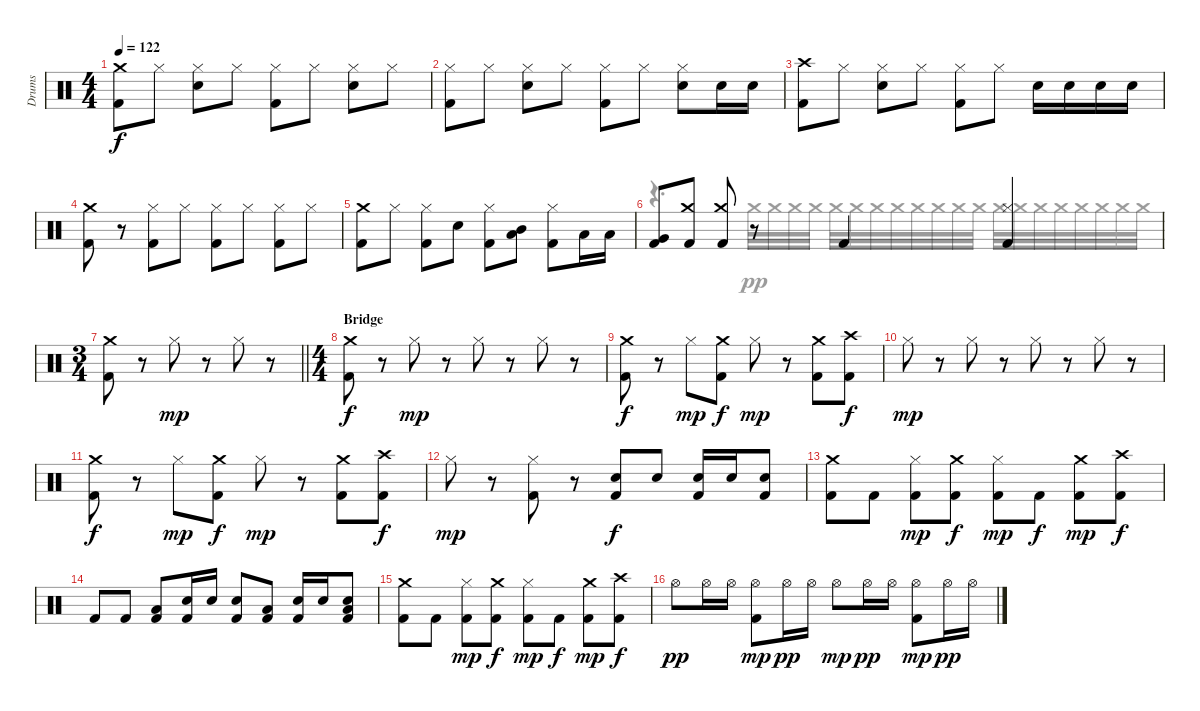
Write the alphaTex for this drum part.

\track ("Drums" "Drums") {instrument percussion}
\staff {score}
\articulation defaults
\voice
\ts (4 4)
\tempo 122
\clef neutral
\ks c
("Crash medium (hit)" "Kick (hit) 2").8{dy f} "Hi-Hat (closed)".8 ("Hi-Hat (closed)" "Electric Snare (hit)").8 "Hi-Hat (closed)".8 ("Hi-Hat (closed)" "Kick (hit) 2").8 "Hi-Hat (closed)".8 ("Hi-Hat (closed)" "Electric Snare (hit)").8 "Hi-Hat (closed)".8 |
("Hi-Hat (closed)" "Kick (hit) 2").8 "Hi-Hat (closed)".8 ("Hi-Hat (closed)" "Electric Snare (hit)").8 "Hi-Hat (closed)".8 ("Hi-Hat (closed)" "Kick (hit) 2").8 "Hi-Hat (closed)".8 ("Hi-Hat (closed)" "Electric Snare (hit)").8 "Electric Snare (hit)".16 "Electric Snare (hit)".16 |
("Crash high (hit)" "Kick (hit) 2").8 "Hi-Hat (closed)".8 ("Hi-Hat (closed)" "Electric Snare (hit)").8 "Hi-Hat (closed)".8 ("Hi-Hat (closed)" "Kick (hit) 2").8 "Hi-Hat (closed)".8 "Electric Snare (hit)".16 "Electric Snare (hit)".16 "Electric Snare (hit)".16 "Electric Snare (hit)".16 |
("Crash medium (hit)" "Kick (hit) 2").8 r.8 ("Hi-Hat (closed)" "Kick (hit) 2").8 "Hi-Hat (closed)".8 ("Hi-Hat (closed)" "Kick (hit) 2").8 "Hi-Hat (closed)".8 ("Hi-Hat (closed)" "Kick (hit) 2").8 "Hi-Hat (closed)".8 |
("Crash medium (hit)" "Kick (hit) 2").8 "Hi-Hat (closed)".8 ("Hi-Hat (closed)" "Kick (hit) 2").8 "Electric Snare (hit)".8 ("Hi-Hat (closed)" "Kick (hit) 2").8 ("Mid Tom (hit)" "Low Tom (hit)").8 ("Hi-Hat (closed)" "Kick (hit) 2").8 "Low Tom (hit)".16 "Low Tom (hit)".16 |
("Very Low Tom (hit)" "Kick (hit) 2").8 ("Crash medium (hit)" "Kick (hit) 2").8 ("Crash medium (hit)" "Kick (hit) 2").8 r.8 "Kick (hit) 2".4 ("Hi-Hat (closed)" "Kick (hit) 2").4 |
\ts (3 4)
\barLineRight lightlight
("Crash medium (hit)" "Kick (hit) 2").8 r.8 "Hi-Hat (closed)".8{dy mp} r.8 "Hi-Hat (closed)".8 r.8 |
\ts (4 4)
\section ("" "Bridge")
("Crash medium (hit)" "Kick (hit) 2").8{dy f} r.8 "Hi-Hat (closed)".8{dy mp} r.8 "Hi-Hat (closed)".8 r.8 "Hi-Hat (closed)".8 r.8 |
("Crash medium (hit)" "Kick (hit) 2").8{dy f} r.8 "Hi-Hat (closed)".8{dy mp} ("Crash medium (hit)" "Kick (hit) 2").8{dy f} "Hi-Hat (closed)".8{dy mp} r.8 ("Crash medium (hit)" "Kick (hit) 2").8 ("Crash high (hit)" "Kick (hit) 2").8{dy f} |
"Hi-Hat (closed)".8{dy mp} r.8 "Hi-Hat (closed)".8 r.8 "Hi-Hat (closed)".8 r.8 "Hi-Hat (closed)".8 r.8 |
("Crash medium (hit)" "Kick (hit) 2").8{dy f} r.8 "Hi-Hat (closed)".8{dy mp} ("Crash medium (hit)" "Kick (hit) 2").8{dy f} "Hi-Hat (closed)".8{dy mp} r.8 ("Crash medium (hit)" "Kick (hit) 2").8 ("Crash high (hit)" "Kick (hit) 2").8{dy f} |
"Hi-Hat (closed)".8{dy mp} r.8 ("Hi-Hat (closed)" "Kick (hit) 2").8 r.8 ("Electric Snare (hit)" "Kick (hit) 2").8{dy f} "Electric Snare (hit)".8 ("Electric Snare (hit)" "Kick (hit) 2").16 "Electric Snare (hit)".16 ("Electric Snare (hit)" "Kick (hit) 2").8 |
("Crash medium (hit)" "Kick (hit) 2").8 "Kick (hit) 2".8 ("Hi-Hat (closed)" "Kick (hit) 2").8{dy mp} ("Crash medium (hit)" "Kick (hit) 2").8{dy f} ("Hi-Hat (closed)" "Kick (hit) 2").8{dy mp} "Kick (hit) 2".8{dy f} ("Crash medium (hit)" "Kick (hit) 2").8{dy mp} ("Crash high (hit)" "Kick (hit) 2").8{dy f} |
"Kick (hit) 2".8 "Kick (hit) 2".8 ("Low Tom (hit)" "Kick (hit) 2").8 ("Electric Snare (hit)" "Kick (hit) 2").16 "Electric Snare (hit)".16 ("Electric Snare (hit)" "Kick (hit) 2").8 ("Low Tom (hit)" "Kick (hit) 2").8 ("Electric Snare (hit)" "Kick (hit) 2").16 "Electric Snare (hit)".16 ("Electric Snare (hit)" "Low Tom (hit)" "Kick (hit) 2").8 |
("Crash medium (hit)" "Kick (hit) 2").8 "Kick (hit) 2".8 ("Hi-Hat (closed)" "Kick (hit) 2").8{dy mp} ("Crash medium (hit)" "Kick (hit) 2").8{dy f} ("Hi-Hat (closed)" "Kick (hit) 2").8{dy mp} "Kick (hit) 2".8{dy f} ("Crash medium (hit)" "Kick (hit) 2").8{dy mp} ("Crash high (hit)" "Kick (hit) 2").8{dy f} |
"Hi-Hat (open)".8{dy pp} "Hi-Hat (open)".16 "Hi-Hat (open)".16 ("Hi-Hat (open)" "Kick (hit) 2").8{dy mp} "Hi-Hat (open)".16{dy pp} "Hi-Hat (open)".16 "Hi-Hat (open)".8{dy mp} "Hi-Hat (open)".16{dy pp} "Hi-Hat (open)".16 ("Hi-Hat (open)" "Kick (hit) 2").8{dy mp} "Hi-Hat (open)".16{dy pp} "Hi-Hat (open)".16
\voice
\clef neutral
\ottava regular
\simile none
\ks c
|
|
|
|
|
r.4{d} "Crash medium (hit)".32 "Crash medium (hit)".32 "Crash medium (hit)".32 "Crash medium (hit)".32 "Crash medium (hit)".32 "Crash medium (hit)".32 "Crash medium (hit)".32 "Crash medium (hit)".32 "Crash medium (hit)".32 "Crash medium (hit)".32 "Crash medium (hit)".32 "Crash medium (hit)".32 "Crash medium (hit)".32 "Crash medium (hit)".32 "Crash medium (hit)".32 "Crash medium (hit)".32 "Crash medium (hit)".32 "Crash medium (hit)".32 "Crash medium (hit)".32 "Crash medium (hit)".32 |
\barLineRight lightlight
|
|
|
|
|
|
|
|
|
